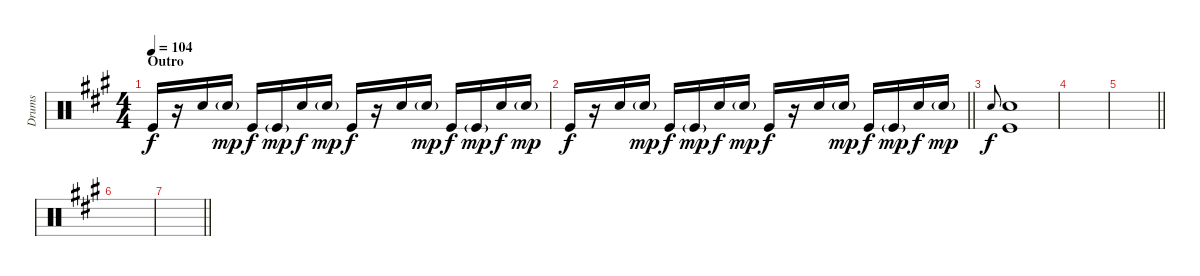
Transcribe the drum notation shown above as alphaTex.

\track ("Drums" "Drums") {instrument percussion}
\staff {score}
\articulation defaults
\ts (4 4)
\section ("" "Outro")
\tempo 104
\clef neutral
\ks a "Kick (hit)".16{dy f}
r.16 "Electric Snare (hit)".16 "Electric Snare (hit)"{g}.16{dy mp} "Kick (hit)".16{dy f} "Kick (hit)"{g}.16{dy mp} "Electric Snare (hit)".16{dy f} "Electric Snare (hit)"{g}.16{dy mp} "Kick (hit)".16{dy f} r.16 "Electric Snare (hit)".16 "Electric Snare (hit)"{g}.16{dy mp} "Kick (hit)".16{dy f} "Kick (hit)"{g}.16{dy mp} "Electric Snare (hit)".16{dy f} "Electric Snare (hit)"{g}.16{dy mp} |
\barLineRight lightlight "Kick (hit)".16{dy f}
r.16 "Electric Snare (hit)".16 "Electric Snare (hit)"{g}.16{dy mp} "Kick (hit)".16{dy f} "Kick (hit)"{g}.16{dy mp} "Electric Snare (hit)".16{dy f} "Electric Snare (hit)"{g}.16{dy mp} "Kick (hit)".16{dy f} r.16 "Electric Snare (hit)".16 "Electric Snare (hit)"{g}.16{dy mp} "Kick (hit)".16{dy f} "Kick (hit)"{g}.16{dy mp} "Electric Snare (hit)".16{dy f} "Electric Snare (hit)"{g}.16{dy mp} |
"Electric Snare (hit)".8{gr onbeat dy f} ("Electric Snare (hit)" "Kick (hit)").1 |
|
\barLineRight lightlight
|
|
\barLineRight lightlight
